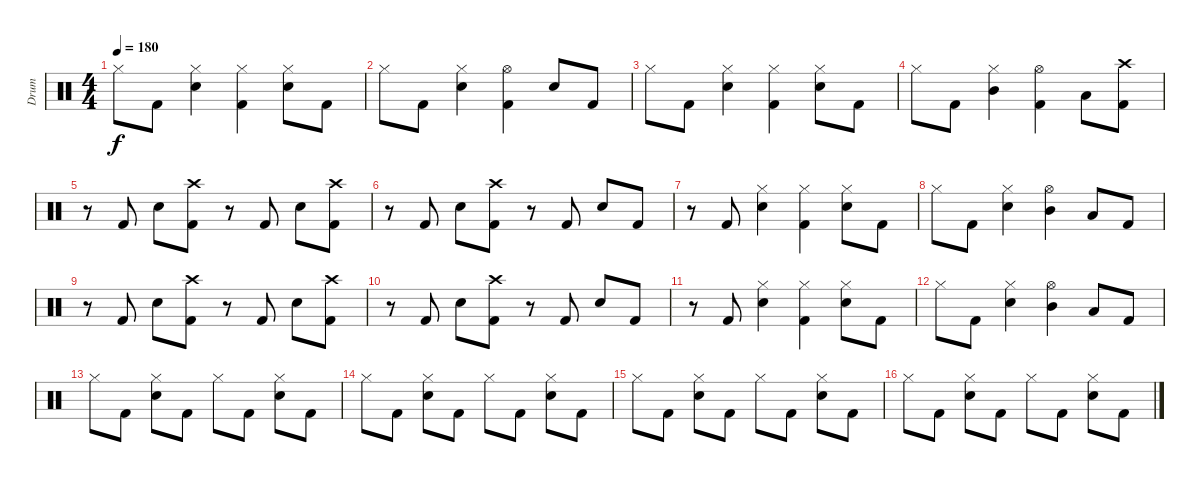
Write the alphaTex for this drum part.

\track ("Drum" "Drum") {instrument percussion}
\staff {score}
\articulation defaults
\ts (4 4)
\tempo 180
\clef neutral
\ks c "Hi-Hat (closed)".8{dy f} "Kick (hit) 2".8
("Hi-Hat (closed)" "Snare (hit) 2").4 ("Hi-Hat (closed)" "Kick (hit) 2").4 ("Hi-Hat (closed)" "Snare (hit) 2").8 "Kick (hit) 2".8 |
"Hi-Hat (closed)".8 "Kick (hit) 2".8 ("Hi-Hat (closed)" "Snare (hit) 2").4 ("Hi-Hat (open)" "Kick (hit) 2").4 "Snare (hit) 2".8 "Kick (hit) 2".8 |
"Hi-Hat (closed)".8 "Kick (hit) 2".8 ("Hi-Hat (closed)" "Snare (hit) 2").4 ("Hi-Hat (closed)" "Kick (hit) 2").4 ("Hi-Hat (closed)" "Snare (hit) 2").8 "Kick (hit) 2".8 |
"Hi-Hat (closed)".8 "Kick (hit) 2".8 ("Hi-Hat (closed)" "Mid Tom (hit)").4 ("Hi-Hat (open)" "Kick (hit) 2").4 "Low Tom (hit)".8 ("Crash high (hit)" "Kick (hit) 2").8 |
r.8 "Kick (hit) 2".8 "Snare (hit) 2".8 ("Crash high (hit)" "Kick (hit) 2").8 r.8 "Kick (hit) 2".8 "Snare (hit) 2".8 ("Crash high (hit)" "Kick (hit) 2").8 |
r.8 "Kick (hit) 2".8 "Snare (hit) 2".8 ("Crash high (hit)" "Kick (hit) 2").8 r.8 "Kick (hit) 2".8 "Snare (hit) 2".8 "Kick (hit) 2".8 |
r.8 "Kick (hit) 2".8 ("Hi-Hat (closed)" "Snare (hit) 2").4 ("Hi-Hat (closed)" "Kick (hit) 2").4 ("Hi-Hat (closed)" "Snare (hit) 2").8 "Kick (hit) 2".8 |
"Hi-Hat (closed)".8 "Kick (hit) 2".8 ("Hi-Hat (closed)" "Snare (hit) 2").4 ("Hi-Hat (open)" "Mid Tom (hit)").4 "Low Tom (hit)".8 "Kick (hit) 2".8 |
r.8 "Kick (hit) 2".8 "Snare (hit) 2".8 ("Crash high (hit)" "Kick (hit) 2").8 r.8 "Kick (hit) 2".8 "Snare (hit) 2".8 ("Crash high (hit)" "Kick (hit) 2").8 |
r.8 "Kick (hit) 2".8 "Snare (hit) 2".8 ("Crash high (hit)" "Kick (hit) 2").8 r.8 "Kick (hit) 2".8 "Snare (hit) 2".8 "Kick (hit) 2".8 |
r.8 "Kick (hit) 2".8 ("Hi-Hat (closed)" "Snare (hit) 2").4 ("Hi-Hat (closed)" "Kick (hit) 2").4 ("Hi-Hat (closed)" "Snare (hit) 2").8 "Kick (hit) 2".8 |
"Hi-Hat (closed)".8 "Kick (hit) 2".8 ("Hi-Hat (closed)" "Snare (hit) 2").4 ("Hi-Hat (open)" "Mid Tom (hit)").4 "Low Tom (hit)".8 "Kick (hit) 2".8 |
"Hi-Hat (closed)".8 "Kick (hit) 2".8 ("Hi-Hat (closed)" "Snare (hit) 2").8 "Kick (hit) 2".8 "Hi-Hat (closed)".8 "Kick (hit) 2".8 ("Hi-Hat (closed)" "Snare (hit) 2").8 "Kick (hit) 2".8 |
"Hi-Hat (closed)".8 "Kick (hit) 2".8 ("Hi-Hat (closed)" "Snare (hit) 2").8 "Kick (hit) 2".8 "Hi-Hat (closed)".8 "Kick (hit) 2".8 ("Hi-Hat (closed)" "Snare (hit) 2").8 "Kick (hit) 2".8 |
"Hi-Hat (closed)".8 "Kick (hit) 2".8 ("Hi-Hat (closed)" "Snare (hit) 2").8 "Kick (hit) 2".8 "Hi-Hat (closed)".8 "Kick (hit) 2".8 ("Hi-Hat (closed)" "Snare (hit) 2").8 "Kick (hit) 2".8 |
"Hi-Hat (closed)".8 "Kick (hit) 2".8 ("Hi-Hat (closed)" "Snare (hit) 2").8 "Kick (hit) 2".8 "Hi-Hat (closed)".8 "Kick (hit) 2".8 ("Hi-Hat (closed)" "Snare (hit) 2").8 "Kick (hit) 2".8
